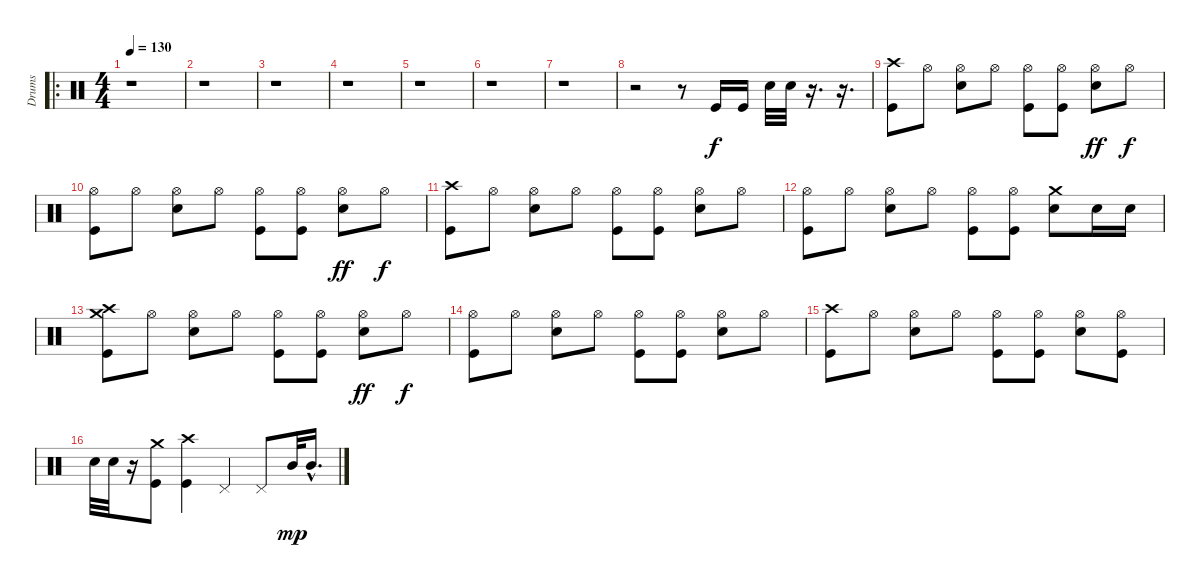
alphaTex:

\track ("Drums" "Drums") {instrument percussion}
\staff {score}
\articulation defaults
\ro
\ts (4 4)
\tempo 130
\clef neutral
\ks c
r.1{dy f} |
r.1 |
r.1 |
r.1 |
r.1 |
r.1 |
r.1 |
r.2 r.8 "Kick (hit)".16 "Kick (hit)".16 "Snare (hit) 2".32 "Snare (hit) 2".32 r.16{d} r.16{d} |
("Crash high (hit)" "Kick (hit)").8 "Hi-Hat (open)".8 ("Hi-Hat (open)" "Snare (hit) 2").8 "Hi-Hat (open)".8 ("Hi-Hat (open)" "Kick (hit)").8 ("Hi-Hat (open)" "Kick (hit)").8 ("Hi-Hat (open)" "Snare (hit) 2").8{dy ff} "Hi-Hat (open)".8{dy f} |
("Hi-Hat (open)" "Kick (hit)").8 "Hi-Hat (open)".8 ("Hi-Hat (open)" "Snare (hit) 2").8 "Hi-Hat (open)".8 ("Hi-Hat (open)" "Kick (hit)").8 ("Hi-Hat (open)" "Kick (hit)").8 ("Hi-Hat (open)" "Snare (hit) 2").8{dy ff} "Hi-Hat (open)".8{dy f} |
("Crash high (hit)" "Kick (hit)").8 "Hi-Hat (open)".8 ("Hi-Hat (open)" "Snare (hit) 2").8 "Hi-Hat (open)".8 ("Hi-Hat (open)" "Kick (hit)").8 ("Hi-Hat (open)" "Kick (hit)").8 ("Hi-Hat (open)" "Snare (hit) 2").8 "Hi-Hat (open)".8 |
("Hi-Hat (open)" "Kick (hit)").8 "Hi-Hat (open)".8 ("Hi-Hat (open)" "Snare (hit) 2").8 "Hi-Hat (open)".8 ("Hi-Hat (open)" "Kick (hit)").8 ("Hi-Hat (open)" "Kick (hit)").8 ("Crash medium (hit)" "Snare (hit) 2").8 "Snare (hit) 2".16 "Snare (hit) 2".16 |
("Crash high (hit)" "Crash medium (hit)" "Kick (hit)").8 "Hi-Hat (open)".8 ("Hi-Hat (open)" "Snare (hit) 2").8 "Hi-Hat (open)".8 ("Hi-Hat (open)" "Kick (hit)").8 ("Hi-Hat (open)" "Kick (hit)").8 ("Hi-Hat (open)" "Snare (hit) 2").8{dy ff} "Hi-Hat (open)".8{dy f} |
("Hi-Hat (open)" "Kick (hit)").8 "Hi-Hat (open)".8 ("Hi-Hat (open)" "Snare (hit) 2").8 "Hi-Hat (open)".8 ("Hi-Hat (open)" "Kick (hit)").8 ("Hi-Hat (open)" "Kick (hit)").8 ("Hi-Hat (open)" "Snare (hit) 2").8 "Hi-Hat (open)".8 |
("Crash high (hit)" "Kick (hit)").8 "Hi-Hat (open)".8 ("Hi-Hat (open)" "Snare (hit) 2").8 "Hi-Hat (open)".8 ("Hi-Hat (open)" "Kick (hit)").8 ("Hi-Hat (open)" "Kick (hit)").8 ("Hi-Hat (open)" "Snare (hit) 2").8 ("Hi-Hat (open)" "Kick (hit)").8 |
"Snare (hit) 2".32 "Snare (hit) 2".32 r.16 ("Crash medium (hit)" "Kick (hit)").8 ("Crash high (hit)" "Kick (hit)").4 "Pedal Hi-Hat (hit)".4 "Pedal Hi-Hat (hit)".8 "Mid Tom (hit)".32{dy mp} "Mid Tom (hit)"{hac}.16{d}
